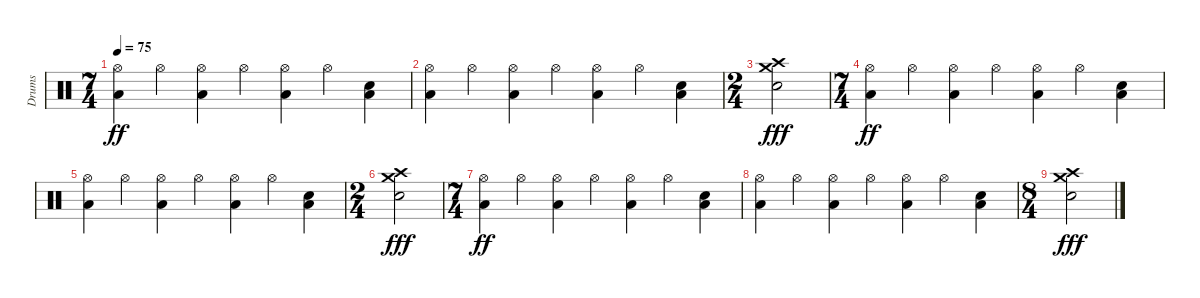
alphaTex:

\track ("Drums" "Drums") {instrument percussion}
\staff {score}
\articulation defaults
\ts (7 4)
\tempo 75
\clef neutral
\ks c
("Hi-Hat (open)" "Low Tom (hit)").4{dy ff} "Hi-Hat (open)".4 ("Low Tom (hit)" "Hi-Hat (open)").4 "Hi-Hat (open)".4 ("Hi-Hat (open)" "Low Tom (hit)").4 "Hi-Hat (open)".4 ("Electric Snare (hit)" "Low Tom (hit)").4 |
("Hi-Hat (open)" "Low Tom (hit)").4 "Hi-Hat (open)".4 ("Low Tom (hit)" "Hi-Hat (open)").4 "Hi-Hat (open)".4 ("Hi-Hat (open)" "Low Tom (hit)").4 "Hi-Hat (open)".4 ("Electric Snare (hit)" "Low Tom (hit)").4 |
\ts (2 4)
("Crash high (hit)" "Crash medium (hit)" "Electric Snare (hit)").2{dy fff} |
\ts (7 4)
("Hi-Hat (open)" "Low Tom (hit)").4{dy ff} "Hi-Hat (open)".4 ("Low Tom (hit)" "Hi-Hat (open)").4 "Hi-Hat (open)".4 ("Hi-Hat (open)" "Low Tom (hit)").4 "Hi-Hat (open)".4 ("Electric Snare (hit)" "Low Tom (hit)").4 |
("Hi-Hat (open)" "Low Tom (hit)").4 "Hi-Hat (open)".4 ("Low Tom (hit)" "Hi-Hat (open)").4 "Hi-Hat (open)".4 ("Hi-Hat (open)" "Low Tom (hit)").4 "Hi-Hat (open)".4 ("Electric Snare (hit)" "Low Tom (hit)").4 |
\ts (2 4)
("Crash high (hit)" "Crash medium (hit)" "Electric Snare (hit)").2{dy fff} |
\ts (7 4)
("Hi-Hat (open)" "Low Tom (hit)").4{dy ff} "Hi-Hat (open)".4 ("Low Tom (hit)" "Hi-Hat (open)").4 "Hi-Hat (open)".4 ("Hi-Hat (open)" "Low Tom (hit)").4 "Hi-Hat (open)".4 ("Electric Snare (hit)" "Low Tom (hit)").4 |
("Hi-Hat (open)" "Low Tom (hit)").4 "Hi-Hat (open)".4 ("Low Tom (hit)" "Hi-Hat (open)").4 "Hi-Hat (open)".4 ("Hi-Hat (open)" "Low Tom (hit)").4 "Hi-Hat (open)".4 ("Electric Snare (hit)" "Low Tom (hit)").4 |
\ts (8 4)
("Crash high (hit)" "Crash medium (hit)" "Electric Snare (hit)").2{dy fff}
